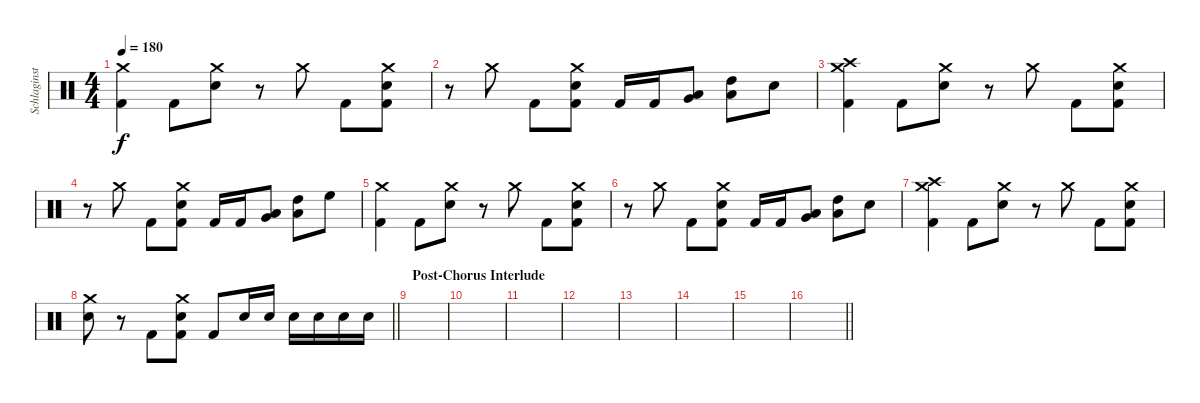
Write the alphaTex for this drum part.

\track ("Schlaginstrumente - Auswahl" "Schlaginst") {instrument percussion}
\staff {score}
\articulation defaults
\ts (4 4)
\tempo 180
\clef neutral
\ks c
("Crash medium (hit)" "Kick (hit) 2").4{dy f} "Kick (hit) 2".8 ("Crash medium (hit)" "Electric Snare (hit)").8 r.8 "Crash medium (hit)".8 "Kick (hit) 2".8 ("Crash medium (hit)" "Electric Snare (hit)" "Kick (hit) 2").8 |
r.8 "Crash medium (hit)".8 "Kick (hit) 2".8 ("Crash medium (hit)" "Electric Snare (hit)" "Kick (hit) 2").8 "Kick (hit) 2".16 "Kick (hit) 2".16 ("Very Low Tom (hit)" "Low Tom (hit)").8 ("High Tom (hit)" "Low Tom (hit)").8 "Electric Snare (hit)".8 |
("Crash medium (hit)" "Crash high (hit)" "Kick (hit) 2").4 "Kick (hit) 2".8 ("Crash medium (hit)" "Electric Snare (hit)").8 r.8 "Crash medium (hit)".8 "Kick (hit) 2".8 ("Crash medium (hit)" "Electric Snare (hit)" "Kick (hit) 2").8 |
r.8 "Crash medium (hit)".8 "Kick (hit) 2".8 ("Crash medium (hit)" "Electric Snare (hit)" "Kick (hit) 2").8 "Kick (hit) 2".16 "Kick (hit) 2".16 ("Very Low Tom (hit)" "Low Tom (hit)").8 ("High Tom (hit)" "Low Tom (hit)").8 "High Floor Tom (hit)".8 |
("Crash medium (hit)" "Kick (hit) 2").4 "Kick (hit) 2".8 ("Crash medium (hit)" "Electric Snare (hit)").8 r.8 "Crash medium (hit)".8 "Kick (hit) 2".8 ("Crash medium (hit)" "Electric Snare (hit)" "Kick (hit) 2").8 |
r.8 "Crash medium (hit)".8 "Kick (hit) 2".8 ("Crash medium (hit)" "Electric Snare (hit)" "Kick (hit) 2").8 "Kick (hit) 2".16 "Kick (hit) 2".16 ("Very Low Tom (hit)" "Low Tom (hit)").8 ("High Tom (hit)" "Low Tom (hit)").8 "Electric Snare (hit)".8 |
("Crash medium (hit)" "Crash high (hit)" "Kick (hit) 2").4 "Kick (hit) 2".8 ("Crash medium (hit)" "Electric Snare (hit)").8 r.8 "Crash medium (hit)".8 "Kick (hit) 2".8 ("Crash medium (hit)" "Electric Snare (hit)" "Kick (hit) 2").8 |
\barLineRight lightlight
("Crash medium (hit)" "Electric Snare (hit)").8 r.8 "Kick (hit) 2".8 ("Crash medium (hit)" "Electric Snare (hit)" "Kick (hit) 2").8 "Kick (hit) 2".8 "Electric Snare (hit)".16 "Electric Snare (hit)".16 "Electric Snare (hit)".16 "Electric Snare (hit)".16 "Electric Snare (hit)".16 "Electric Snare (hit)".16 |
\section ("" "Post-Chorus Interlude")
|
|
|
|
|
|
|
\barLineRight lightlight
